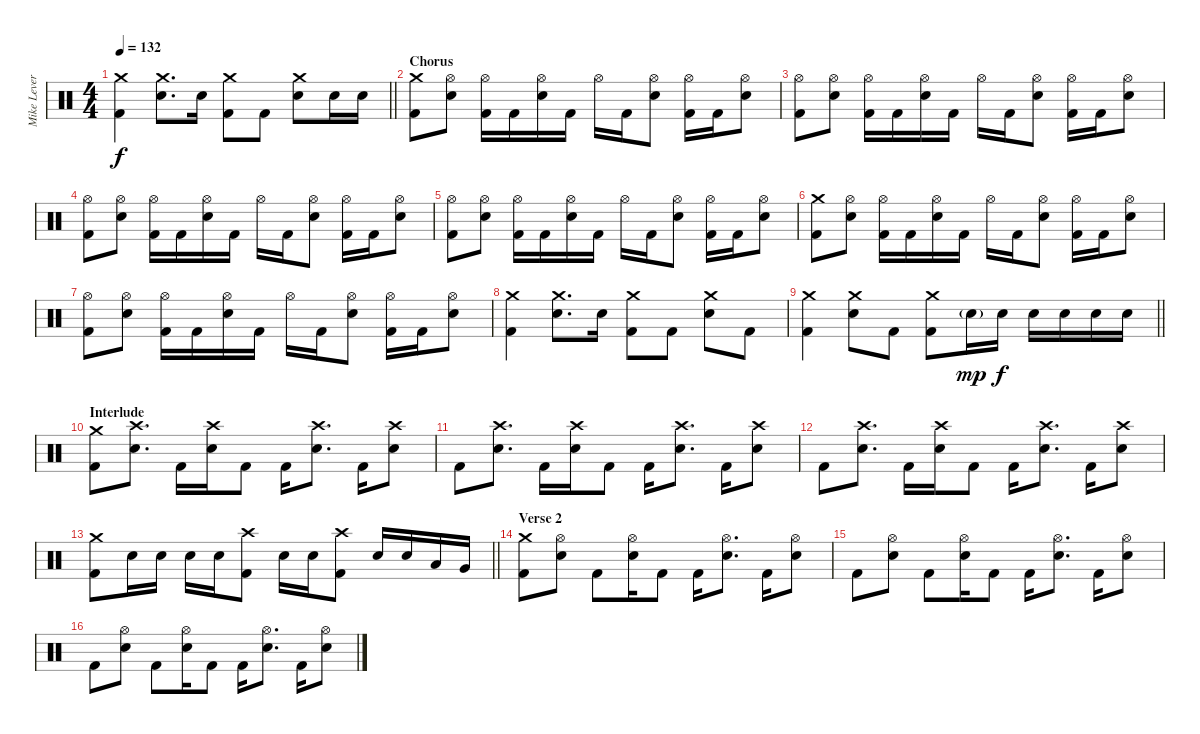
\track ("Mike Leverence - Drums" "Mike Lever") {instrument percussion}
\staff {score}
\articulation defaults
\ts (4 4)
\tempo 132
\clef neutral
\barLineRight lightlight
\ks c
("Crash medium (hit)" "Kick (hit) 2").4{dy f} ("Crash medium (hit)" "Electric Snare (hit)").8{d} "Electric Snare (hit)".16 ("Crash medium (hit)" "Kick (hit) 2").8 "Kick (hit) 2".8 ("Crash medium (hit)" "Electric Snare (hit)").8 "Electric Snare (hit)".16 "Electric Snare (hit)".16 |
\section ("" "Chorus")
("Crash medium (hit)" "Kick (hit) 2").8 ("Hi-Hat (open)" "Electric Snare (hit)").8 ("Hi-Hat (open)" "Kick (hit) 2").16 "Kick (hit) 2".16 ("Hi-Hat (open)" "Electric Snare (hit)").16 "Kick (hit) 2".16 "Hi-Hat (open)".16 "Kick (hit) 2".16 ("Hi-Hat (open)" "Electric Snare (hit)").8 ("Hi-Hat (open)" "Kick (hit) 2").16 "Kick (hit) 2".16 ("Hi-Hat (open)" "Electric Snare (hit)").8 |
("Hi-Hat (open)" "Kick (hit) 2").8 ("Hi-Hat (open)" "Electric Snare (hit)").8 ("Hi-Hat (open)" "Kick (hit) 2").16 "Kick (hit) 2".16 ("Hi-Hat (open)" "Electric Snare (hit)").16 "Kick (hit) 2".16 "Hi-Hat (open)".16 "Kick (hit) 2".16 ("Hi-Hat (open)" "Electric Snare (hit)").8 ("Hi-Hat (open)" "Kick (hit) 2").16 "Kick (hit) 2".16 ("Hi-Hat (open)" "Electric Snare (hit)").8 |
("Hi-Hat (open)" "Kick (hit) 2").8 ("Hi-Hat (open)" "Electric Snare (hit)").8 ("Hi-Hat (open)" "Kick (hit) 2").16 "Kick (hit) 2".16 ("Hi-Hat (open)" "Electric Snare (hit)").16 "Kick (hit) 2".16 "Hi-Hat (open)".16 "Kick (hit) 2".16 ("Hi-Hat (open)" "Electric Snare (hit)").8 ("Hi-Hat (open)" "Kick (hit) 2").16 "Kick (hit) 2".16 ("Hi-Hat (open)" "Electric Snare (hit)").8 |
("Hi-Hat (open)" "Kick (hit) 2").8 ("Hi-Hat (open)" "Electric Snare (hit)").8 ("Hi-Hat (open)" "Kick (hit) 2").16 "Kick (hit) 2".16 ("Hi-Hat (open)" "Electric Snare (hit)").16 "Kick (hit) 2".16 "Hi-Hat (open)".16 "Kick (hit) 2".16 ("Hi-Hat (open)" "Electric Snare (hit)").8 ("Hi-Hat (open)" "Kick (hit) 2").16 "Kick (hit) 2".16 ("Hi-Hat (open)" "Electric Snare (hit)").8 |
("Crash medium (hit)" "Kick (hit) 2").8 ("Hi-Hat (open)" "Electric Snare (hit)").8 ("Hi-Hat (open)" "Kick (hit) 2").16 "Kick (hit) 2".16 ("Hi-Hat (open)" "Electric Snare (hit)").16 "Kick (hit) 2".16 "Hi-Hat (open)".16 "Kick (hit) 2".16 ("Hi-Hat (open)" "Electric Snare (hit)").8 ("Hi-Hat (open)" "Kick (hit) 2").16 "Kick (hit) 2".16 ("Hi-Hat (open)" "Electric Snare (hit)").8 |
("Hi-Hat (open)" "Kick (hit) 2").8 ("Hi-Hat (open)" "Electric Snare (hit)").8 ("Hi-Hat (open)" "Kick (hit) 2").16 "Kick (hit) 2".16 ("Hi-Hat (open)" "Electric Snare (hit)").16 "Kick (hit) 2".16 "Hi-Hat (open)".16 "Kick (hit) 2".16 ("Hi-Hat (open)" "Electric Snare (hit)").8 ("Hi-Hat (open)" "Kick (hit) 2").16 "Kick (hit) 2".16 ("Hi-Hat (open)" "Electric Snare (hit)").8 |
("Crash medium (hit)" "Kick (hit) 2").4 ("Crash medium (hit)" "Electric Snare (hit)").8{d} "Electric Snare (hit)".16 ("Crash medium (hit)" "Kick (hit) 2").8 "Kick (hit) 2".8 ("Crash medium (hit)" "Electric Snare (hit)").8 "Kick (hit) 2".8 |
\barLineRight lightlight
("Crash medium (hit)" "Kick (hit) 2").4 ("Crash medium (hit)" "Electric Snare (hit)").8 "Kick (hit) 2".8 ("Crash medium (hit)" "Kick (hit) 2").8 "Electric Snare (hit)"{g}.16{dy mp} "Electric Snare (hit)".16{dy f} "Electric Snare (hit)".16 "Electric Snare (hit)".16 "Electric Snare (hit)".16 "Electric Snare (hit)".16 |
\section ("" "Interlude")
("Crash medium (hit)" "Kick (hit) 2").8 ("Crash high (hit)" "Electric Snare (hit)").8{d} "Kick (hit) 2".16 ("Crash high (hit)" "Electric Snare (hit)").16 "Kick (hit) 2".8 "Kick (hit) 2".16 ("Crash high (hit)" "Electric Snare (hit)").8{d} "Kick (hit) 2".16 ("Crash high (hit)" "Electric Snare (hit)").8 |
"Kick (hit) 2".8 ("Crash high (hit)" "Electric Snare (hit)").8{d} "Kick (hit) 2".16 ("Crash high (hit)" "Electric Snare (hit)").16 "Kick (hit) 2".8 "Kick (hit) 2".16 ("Crash high (hit)" "Electric Snare (hit)").8{d} "Kick (hit) 2".16 ("Crash high (hit)" "Electric Snare (hit)").8 |
"Kick (hit) 2".8 ("Crash high (hit)" "Electric Snare (hit)").8{d} "Kick (hit) 2".16 ("Crash high (hit)" "Electric Snare (hit)").16 "Kick (hit) 2".8 "Kick (hit) 2".16 ("Crash high (hit)" "Electric Snare (hit)").8{d} "Kick (hit) 2".16 ("Crash high (hit)" "Electric Snare (hit)").8 |
\barLineRight lightlight
("Crash medium (hit)" "Kick (hit) 2").8 "Electric Snare (hit)".16 "Electric Snare (hit)".16 "Electric Snare (hit)".16 "Electric Snare (hit)".16 ("Crash high (hit)" "Kick (hit) 2").8 "Electric Snare (hit)".16 "Electric Snare (hit)".16 ("Crash high (hit)" "Kick (hit) 2").8 "Electric Snare (hit)".16 "Electric Snare (hit)".16 "Low Tom (hit)".16 "Very Low Tom (hit)".16 |
\section ("" "Verse 2")
("Crash medium (hit)" "Kick (hit) 2").8 ("Hi-Hat (open)" "Electric Snare (hit)").8 "Kick (hit) 2".8 ("Hi-Hat (open)" "Electric Snare (hit)").16 "Kick (hit) 2".8 "Kick (hit) 2".16 ("Hi-Hat (open)" "Electric Snare (hit)").8{d} "Kick (hit) 2".16 ("Hi-Hat (open)" "Electric Snare (hit)").8 |
"Kick (hit) 2".8 ("Hi-Hat (open)" "Electric Snare (hit)").8 "Kick (hit) 2".8 ("Hi-Hat (open)" "Electric Snare (hit)").16 "Kick (hit) 2".8 "Kick (hit) 2".16 ("Hi-Hat (open)" "Electric Snare (hit)").8{d} "Kick (hit) 2".16 ("Hi-Hat (open)" "Electric Snare (hit)").8 |
"Kick (hit) 2".8 ("Hi-Hat (open)" "Electric Snare (hit)").8 "Kick (hit) 2".8 ("Hi-Hat (open)" "Electric Snare (hit)").16 "Kick (hit) 2".8 "Kick (hit) 2".16 ("Hi-Hat (open)" "Electric Snare (hit)").8{d} "Kick (hit) 2".16 ("Hi-Hat (open)" "Electric Snare (hit)").8
